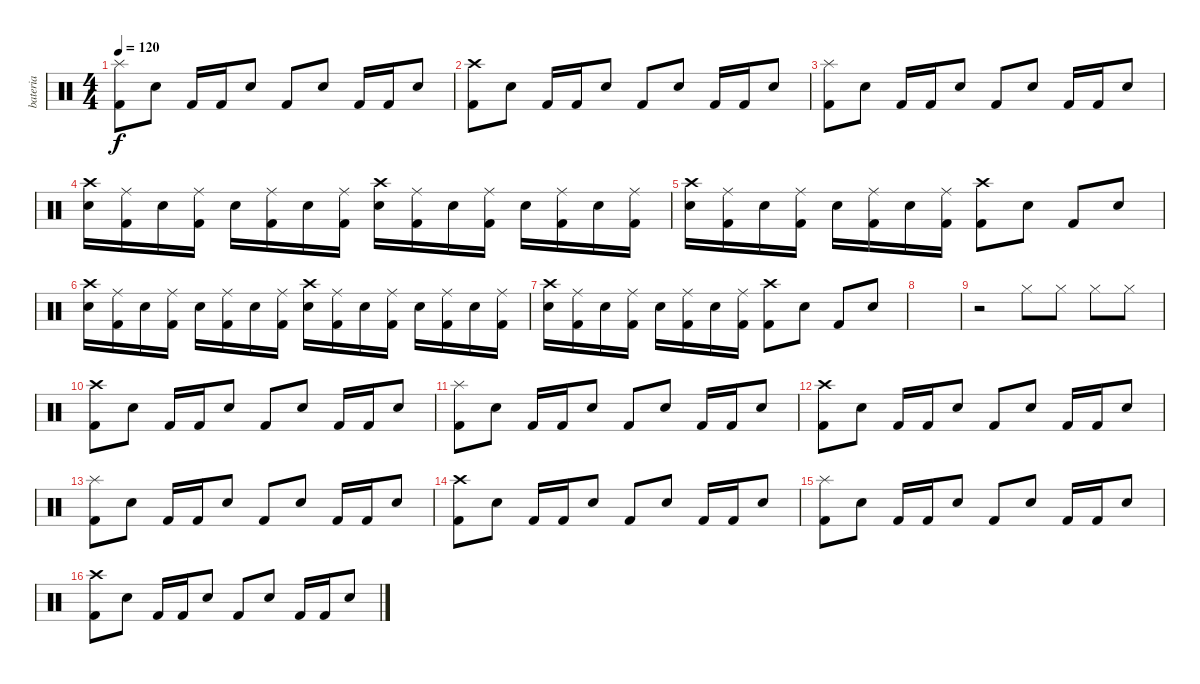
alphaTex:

\track ("bateria" "bateria") {instrument percussion}
\staff {score}
\articulation defaults
\ts (4 4)
\tempo 120
\clef neutral
\ks c
("Kick (hit) 2" "Splash (hit)").8{dy f} "Electric Snare (hit)".8 "Kick (hit) 2".16 "Kick (hit) 2".16 "Electric Snare (hit)".8 "Kick (hit) 2".8 "Electric Snare (hit)".8 "Kick (hit) 2".16 "Kick (hit) 2".16 "Electric Snare (hit)".8 |
("Kick (hit) 2" "Crash high (hit)").8 "Electric Snare (hit)".8 "Kick (hit) 2".16 "Kick (hit) 2".16 "Electric Snare (hit)".8 "Kick (hit) 2".8 "Electric Snare (hit)".8 "Kick (hit) 2".16 "Kick (hit) 2".16 "Electric Snare (hit)".8 |
("Kick (hit) 2" "Splash (hit)").8 "Electric Snare (hit)".8 "Kick (hit) 2".16 "Kick (hit) 2".16 "Electric Snare (hit)".8 "Kick (hit) 2".8 "Electric Snare (hit)".8 "Kick (hit) 2".16 "Kick (hit) 2".16 "Electric Snare (hit)".8 |
("Electric Snare (hit)" "Crash high (hit)").16 ("Kick (hit) 2" "Ride (middle)").16 "Electric Snare (hit)".16 ("Kick (hit) 2" "Ride (middle)").16 "Electric Snare (hit)".16 ("Kick (hit) 2" "Ride (middle)").16 "Electric Snare (hit)".16 ("Kick (hit) 2" "Ride (middle)").16 ("Electric Snare (hit)" "Crash high (hit)").16 ("Kick (hit) 2" "Ride (middle)").16 "Electric Snare (hit)".16 ("Kick (hit) 2" "Ride (middle)").16 "Electric Snare (hit)".16 ("Kick (hit) 2" "Ride (middle)").16 "Electric Snare (hit)".16 ("Kick (hit) 2" "Ride (middle)").16 |
("Electric Snare (hit)" "Crash high (hit)").16 ("Kick (hit) 2" "Ride (middle)").16 "Electric Snare (hit)".16 ("Kick (hit) 2" "Ride (middle)").16 "Electric Snare (hit)".16 ("Kick (hit) 2" "Ride (middle)").16 "Electric Snare (hit)".16 ("Kick (hit) 2" "Ride (middle)").16 ("Kick (hit) 2" "Crash high (hit)").8 "Electric Snare (hit)".8 "Kick (hit) 2".8 "Electric Snare (hit)".8 |
("Electric Snare (hit)" "Crash high (hit)").16 ("Kick (hit) 2" "Ride (middle)").16 "Electric Snare (hit)".16 ("Kick (hit) 2" "Ride (middle)").16 "Electric Snare (hit)".16 ("Kick (hit) 2" "Ride (middle)").16 "Electric Snare (hit)".16 ("Kick (hit) 2" "Ride (middle)").16 ("Electric Snare (hit)" "Crash high (hit)").16 ("Kick (hit) 2" "Ride (middle)").16 "Electric Snare (hit)".16 ("Kick (hit) 2" "Ride (middle)").16 "Electric Snare (hit)".16 ("Kick (hit) 2" "Ride (middle)").16 "Electric Snare (hit)".16 ("Kick (hit) 2" "Ride (middle)").16 |
("Electric Snare (hit)" "Crash high (hit)").16 ("Kick (hit) 2" "Ride (middle)").16 "Electric Snare (hit)".16 ("Kick (hit) 2" "Ride (middle)").16 "Electric Snare (hit)".16 ("Kick (hit) 2" "Ride (middle)").16 "Electric Snare (hit)".16 ("Kick (hit) 2" "Ride (middle)").16 ("Kick (hit) 2" "Crash high (hit)").8 "Electric Snare (hit)".8 "Kick (hit) 2".8 "Electric Snare (hit)".8 |
|
r.2 "Hi-Hat (closed)".8 "Hi-Hat (closed)".8 "Hi-Hat (closed)".8 "Hi-Hat (closed)".8 |
("Kick (hit) 2" "Crash high (hit)").8 "Electric Snare (hit)".8 "Kick (hit) 2".16 "Kick (hit) 2".16 "Electric Snare (hit)".8 "Kick (hit) 2".8 "Electric Snare (hit)".8 "Kick (hit) 2".16 "Kick (hit) 2".16 "Electric Snare (hit)".8 |
("Kick (hit) 2" "Splash (hit)").8 "Electric Snare (hit)".8 "Kick (hit) 2".16 "Kick (hit) 2".16 "Electric Snare (hit)".8 "Kick (hit) 2".8 "Electric Snare (hit)".8 "Kick (hit) 2".16 "Kick (hit) 2".16 "Electric Snare (hit)".8 |
("Kick (hit) 2" "Crash high (hit)").8 "Electric Snare (hit)".8 "Kick (hit) 2".16 "Kick (hit) 2".16 "Electric Snare (hit)".8 "Kick (hit) 2".8 "Electric Snare (hit)".8 "Kick (hit) 2".16 "Kick (hit) 2".16 "Electric Snare (hit)".8 |
("Kick (hit) 2" "Splash (hit)").8 "Electric Snare (hit)".8 "Kick (hit) 2".16 "Kick (hit) 2".16 "Electric Snare (hit)".8 "Kick (hit) 2".8 "Electric Snare (hit)".8 "Kick (hit) 2".16 "Kick (hit) 2".16 "Electric Snare (hit)".8 |
("Kick (hit) 2" "Crash high (hit)").8 "Electric Snare (hit)".8 "Kick (hit) 2".16 "Kick (hit) 2".16 "Electric Snare (hit)".8 "Kick (hit) 2".8 "Electric Snare (hit)".8 "Kick (hit) 2".16 "Kick (hit) 2".16 "Electric Snare (hit)".8 |
("Kick (hit) 2" "Splash (hit)").8 "Electric Snare (hit)".8 "Kick (hit) 2".16 "Kick (hit) 2".16 "Electric Snare (hit)".8 "Kick (hit) 2".8 "Electric Snare (hit)".8 "Kick (hit) 2".16 "Kick (hit) 2".16 "Electric Snare (hit)".8 |
("Kick (hit) 2" "Crash high (hit)").8 "Electric Snare (hit)".8 "Kick (hit) 2".16 "Kick (hit) 2".16 "Electric Snare (hit)".8 "Kick (hit) 2".8 "Electric Snare (hit)".8 "Kick (hit) 2".16 "Kick (hit) 2".16 "Electric Snare (hit)".8
